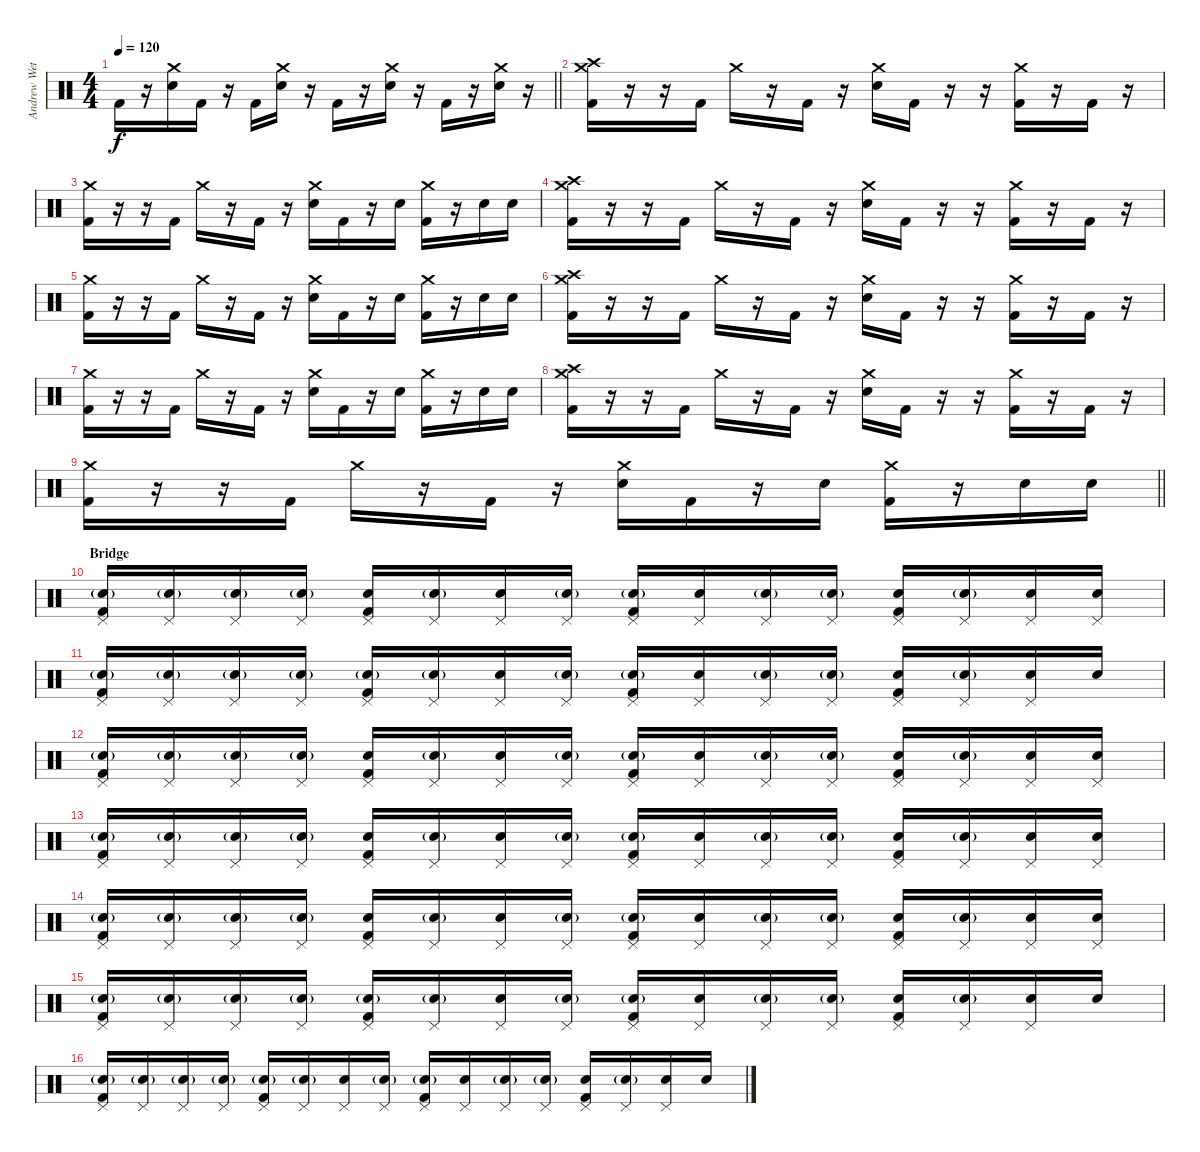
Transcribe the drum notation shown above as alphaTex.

\track ("Andrew Wetzel - Drums" "Andrew Wet") {instrument percussion}
\staff {score}
\articulation defaults
\ts (4 4)
\tempo 120
\clef neutral
\barLineRight lightlight
\ks c "Kick (hit) 2".16{dy f}
r.16 ("Crash medium (hit)" "Electric Snare (hit)").16 "Kick (hit) 2".16 r.16 "Kick (hit) 2".16 ("Crash medium (hit)" "Electric Snare (hit)").16 r.16 "Kick (hit) 2".16 r.16 ("Crash medium (hit)" "Electric Snare (hit)").16 r.16 "Kick (hit) 2".16 r.16 ("Crash medium (hit)" "Electric Snare (hit)").16 r.16 |
("Crash high (hit)" "Crash medium (hit)" "Kick (hit) 2").16 r.16 r.16 "Kick (hit) 2".16 "Crash medium (hit)".16 r.16 "Kick (hit) 2".16 r.16 ("Crash medium (hit)" "Electric Snare (hit)").16 "Kick (hit) 2".16 r.16 r.16 ("Crash medium (hit)" "Kick (hit) 2").16 r.16 "Kick (hit) 2".16 r.16 |
("Crash medium (hit)" "Kick (hit) 2").16 r.16 r.16 "Kick (hit) 2".16 "Crash medium (hit)".16 r.16 "Kick (hit) 2".16 r.16 ("Crash medium (hit)" "Electric Snare (hit)").16 "Kick (hit) 2".16 r.16 "Electric Snare (hit)".16 ("Crash medium (hit)" "Kick (hit) 2").16 r.16 "Electric Snare (hit)".16 "Electric Snare (hit)".16 |
("Crash high (hit)" "Crash medium (hit)" "Kick (hit) 2").16 r.16 r.16 "Kick (hit) 2".16 "Crash medium (hit)".16 r.16 "Kick (hit) 2".16 r.16 ("Crash medium (hit)" "Electric Snare (hit)").16 "Kick (hit) 2".16 r.16 r.16 ("Crash medium (hit)" "Kick (hit) 2").16 r.16 "Kick (hit) 2".16 r.16 |
("Crash medium (hit)" "Kick (hit) 2").16 r.16 r.16 "Kick (hit) 2".16 "Crash medium (hit)".16 r.16 "Kick (hit) 2".16 r.16 ("Crash medium (hit)" "Electric Snare (hit)").16 "Kick (hit) 2".16 r.16 "Electric Snare (hit)".16 ("Crash medium (hit)" "Kick (hit) 2").16 r.16 "Electric Snare (hit)".16 "Electric Snare (hit)".16 |
("Crash high (hit)" "Crash medium (hit)" "Kick (hit) 2").16 r.16 r.16 "Kick (hit) 2".16 "Crash medium (hit)".16 r.16 "Kick (hit) 2".16 r.16 ("Crash medium (hit)" "Electric Snare (hit)").16 "Kick (hit) 2".16 r.16 r.16 ("Crash medium (hit)" "Kick (hit) 2").16 r.16 "Kick (hit) 2".16 r.16 |
("Crash medium (hit)" "Kick (hit) 2").16 r.16 r.16 "Kick (hit) 2".16 "Crash medium (hit)".16 r.16 "Kick (hit) 2".16 r.16 ("Crash medium (hit)" "Electric Snare (hit)").16 "Kick (hit) 2".16 r.16 "Electric Snare (hit)".16 ("Crash medium (hit)" "Kick (hit) 2").16 r.16 "Electric Snare (hit)".16 "Electric Snare (hit)".16 |
("Crash high (hit)" "Crash medium (hit)" "Kick (hit) 2").16 r.16 r.16 "Kick (hit) 2".16 "Crash medium (hit)".16 r.16 "Kick (hit) 2".16 r.16 ("Crash medium (hit)" "Electric Snare (hit)").16 "Kick (hit) 2".16 r.16 r.16 ("Crash medium (hit)" "Kick (hit) 2").16 r.16 "Kick (hit) 2".16 r.16 |
\barLineRight lightlight
("Crash medium (hit)" "Kick (hit) 2").16 r.16 r.16 "Kick (hit) 2".16 "Crash medium (hit)".16 r.16 "Kick (hit) 2".16 r.16 ("Crash medium (hit)" "Electric Snare (hit)").16 "Kick (hit) 2".16 r.16 "Electric Snare (hit)".16 ("Crash medium (hit)" "Kick (hit) 2").16 r.16 "Electric Snare (hit)".16 "Electric Snare (hit)".16 |
\section ("" "Bridge")
("Pedal Hi-Hat (hit)" "Electric Snare (hit)"{g} "Kick (hit) 2").16 ("Pedal Hi-Hat (hit)" "Electric Snare (hit)"{g}).16 ("Pedal Hi-Hat (hit)" "Electric Snare (hit)"{g}).16 ("Pedal Hi-Hat (hit)" "Electric Snare (hit)"{g}).16 ("Pedal Hi-Hat (hit)" "Electric Snare (hit)" "Kick (hit) 2").16 ("Pedal Hi-Hat (hit)" "Electric Snare (hit)"{g}).16 ("Pedal Hi-Hat (hit)" "Electric Snare (hit)").16 ("Pedal Hi-Hat (hit)" "Electric Snare (hit)"{g}).16 ("Pedal Hi-Hat (hit)" "Electric Snare (hit)"{g} "Kick (hit) 2").16 ("Pedal Hi-Hat (hit)" "Electric Snare (hit)").16 ("Pedal Hi-Hat (hit)" "Electric Snare (hit)"{g}).16 ("Pedal Hi-Hat (hit)" "Electric Snare (hit)"{g}).16 ("Pedal Hi-Hat (hit)" "Electric Snare (hit)" "Kick (hit) 2").16 ("Pedal Hi-Hat (hit)" "Electric Snare (hit)"{g}).16 ("Pedal Hi-Hat (hit)" "Electric Snare (hit)").16 ("Pedal Hi-Hat (hit)" "Electric Snare (hit)").16 |
("Pedal Hi-Hat (hit)" "Electric Snare (hit)"{g} "Kick (hit) 2").16 ("Pedal Hi-Hat (hit)" "Electric Snare (hit)"{g}).16 ("Pedal Hi-Hat (hit)" "Electric Snare (hit)"{g}).16 ("Pedal Hi-Hat (hit)" "Electric Snare (hit)"{g}).16 ("Pedal Hi-Hat (hit)" "Electric Snare (hit)"{g} "Kick (hit) 2").16 ("Pedal Hi-Hat (hit)" "Electric Snare (hit)"{g}).16 ("Pedal Hi-Hat (hit)" "Electric Snare (hit)").16 ("Pedal Hi-Hat (hit)" "Electric Snare (hit)"{g}).16 ("Pedal Hi-Hat (hit)" "Electric Snare (hit)"{g} "Kick (hit) 2").16 ("Pedal Hi-Hat (hit)" "Electric Snare (hit)").16 ("Pedal Hi-Hat (hit)" "Electric Snare (hit)"{g}).16 ("Pedal Hi-Hat (hit)" "Electric Snare (hit)"{g}).16 ("Pedal Hi-Hat (hit)" "Electric Snare (hit)" "Kick (hit) 2").16 ("Pedal Hi-Hat (hit)" "Electric Snare (hit)"{g}).16 ("Pedal Hi-Hat (hit)" "Electric Snare (hit)").16 "Electric Snare (hit)".16 |
("Pedal Hi-Hat (hit)" "Electric Snare (hit)"{g} "Kick (hit) 2").16 ("Pedal Hi-Hat (hit)" "Electric Snare (hit)"{g}).16 ("Pedal Hi-Hat (hit)" "Electric Snare (hit)"{g}).16 ("Pedal Hi-Hat (hit)" "Electric Snare (hit)"{g}).16 ("Pedal Hi-Hat (hit)" "Electric Snare (hit)" "Kick (hit) 2").16 ("Pedal Hi-Hat (hit)" "Electric Snare (hit)"{g}).16 ("Pedal Hi-Hat (hit)" "Electric Snare (hit)").16 ("Pedal Hi-Hat (hit)" "Electric Snare (hit)"{g}).16 ("Pedal Hi-Hat (hit)" "Electric Snare (hit)"{g} "Kick (hit) 2").16 ("Pedal Hi-Hat (hit)" "Electric Snare (hit)").16 ("Pedal Hi-Hat (hit)" "Electric Snare (hit)"{g}).16 ("Pedal Hi-Hat (hit)" "Electric Snare (hit)"{g}).16 ("Pedal Hi-Hat (hit)" "Electric Snare (hit)" "Kick (hit) 2").16 ("Pedal Hi-Hat (hit)" "Electric Snare (hit)"{g}).16 ("Pedal Hi-Hat (hit)" "Electric Snare (hit)").16 ("Pedal Hi-Hat (hit)" "Electric Snare (hit)").16 |
("Pedal Hi-Hat (hit)" "Electric Snare (hit)"{g} "Kick (hit) 2").16 ("Pedal Hi-Hat (hit)" "Electric Snare (hit)"{g}).16 ("Pedal Hi-Hat (hit)" "Electric Snare (hit)"{g}).16 ("Pedal Hi-Hat (hit)" "Electric Snare (hit)"{g}).16 ("Pedal Hi-Hat (hit)" "Electric Snare (hit)" "Kick (hit) 2").16 ("Pedal Hi-Hat (hit)" "Electric Snare (hit)"{g}).16 ("Pedal Hi-Hat (hit)" "Electric Snare (hit)").16 ("Pedal Hi-Hat (hit)" "Electric Snare (hit)"{g}).16 ("Pedal Hi-Hat (hit)" "Electric Snare (hit)"{g} "Kick (hit) 2").16 ("Pedal Hi-Hat (hit)" "Electric Snare (hit)").16 ("Pedal Hi-Hat (hit)" "Electric Snare (hit)"{g}).16 ("Pedal Hi-Hat (hit)" "Electric Snare (hit)"{g}).16 ("Pedal Hi-Hat (hit)" "Electric Snare (hit)" "Kick (hit) 2").16 ("Pedal Hi-Hat (hit)" "Electric Snare (hit)"{g}).16 ("Pedal Hi-Hat (hit)" "Electric Snare (hit)").16 ("Pedal Hi-Hat (hit)" "Electric Snare (hit)").16 |
("Pedal Hi-Hat (hit)" "Electric Snare (hit)"{g} "Kick (hit) 2").16 ("Pedal Hi-Hat (hit)" "Electric Snare (hit)"{g}).16 ("Pedal Hi-Hat (hit)" "Electric Snare (hit)"{g}).16 ("Pedal Hi-Hat (hit)" "Electric Snare (hit)"{g}).16 ("Pedal Hi-Hat (hit)" "Electric Snare (hit)" "Kick (hit) 2").16 ("Pedal Hi-Hat (hit)" "Electric Snare (hit)"{g}).16 ("Pedal Hi-Hat (hit)" "Electric Snare (hit)").16 ("Pedal Hi-Hat (hit)" "Electric Snare (hit)"{g}).16 ("Pedal Hi-Hat (hit)" "Electric Snare (hit)"{g} "Kick (hit) 2").16 ("Pedal Hi-Hat (hit)" "Electric Snare (hit)").16 ("Pedal Hi-Hat (hit)" "Electric Snare (hit)"{g}).16 ("Pedal Hi-Hat (hit)" "Electric Snare (hit)"{g}).16 ("Pedal Hi-Hat (hit)" "Electric Snare (hit)" "Kick (hit) 2").16 ("Pedal Hi-Hat (hit)" "Electric Snare (hit)"{g}).16 ("Pedal Hi-Hat (hit)" "Electric Snare (hit)").16 ("Pedal Hi-Hat (hit)" "Electric Snare (hit)").16 |
("Pedal Hi-Hat (hit)" "Electric Snare (hit)"{g} "Kick (hit) 2").16 ("Pedal Hi-Hat (hit)" "Electric Snare (hit)"{g}).16 ("Pedal Hi-Hat (hit)" "Electric Snare (hit)"{g}).16 ("Pedal Hi-Hat (hit)" "Electric Snare (hit)"{g}).16 ("Pedal Hi-Hat (hit)" "Electric Snare (hit)"{g} "Kick (hit) 2").16 ("Pedal Hi-Hat (hit)" "Electric Snare (hit)"{g}).16 ("Pedal Hi-Hat (hit)" "Electric Snare (hit)").16 ("Pedal Hi-Hat (hit)" "Electric Snare (hit)"{g}).16 ("Pedal Hi-Hat (hit)" "Electric Snare (hit)"{g} "Kick (hit) 2").16 ("Pedal Hi-Hat (hit)" "Electric Snare (hit)").16 ("Pedal Hi-Hat (hit)" "Electric Snare (hit)"{g}).16 ("Pedal Hi-Hat (hit)" "Electric Snare (hit)"{g}).16 ("Pedal Hi-Hat (hit)" "Electric Snare (hit)" "Kick (hit) 2").16 ("Pedal Hi-Hat (hit)" "Electric Snare (hit)"{g}).16 ("Pedal Hi-Hat (hit)" "Electric Snare (hit)").16 "Electric Snare (hit)".16 |
("Pedal Hi-Hat (hit)" "Electric Snare (hit)"{g} "Kick (hit) 2").16 ("Pedal Hi-Hat (hit)" "Electric Snare (hit)"{g}).16 ("Pedal Hi-Hat (hit)" "Electric Snare (hit)"{g}).16 ("Pedal Hi-Hat (hit)" "Electric Snare (hit)"{g}).16 ("Pedal Hi-Hat (hit)" "Electric Snare (hit)"{g} "Kick (hit) 2").16 ("Pedal Hi-Hat (hit)" "Electric Snare (hit)"{g}).16 ("Pedal Hi-Hat (hit)" "Electric Snare (hit)").16 ("Pedal Hi-Hat (hit)" "Electric Snare (hit)"{g}).16 ("Pedal Hi-Hat (hit)" "Electric Snare (hit)"{g} "Kick (hit) 2").16 ("Pedal Hi-Hat (hit)" "Electric Snare (hit)").16 ("Pedal Hi-Hat (hit)" "Electric Snare (hit)"{g}).16 ("Pedal Hi-Hat (hit)" "Electric Snare (hit)"{g}).16 ("Pedal Hi-Hat (hit)" "Electric Snare (hit)" "Kick (hit) 2").16 ("Pedal Hi-Hat (hit)" "Electric Snare (hit)"{g}).16 ("Pedal Hi-Hat (hit)" "Electric Snare (hit)").16 "Electric Snare (hit)".16
